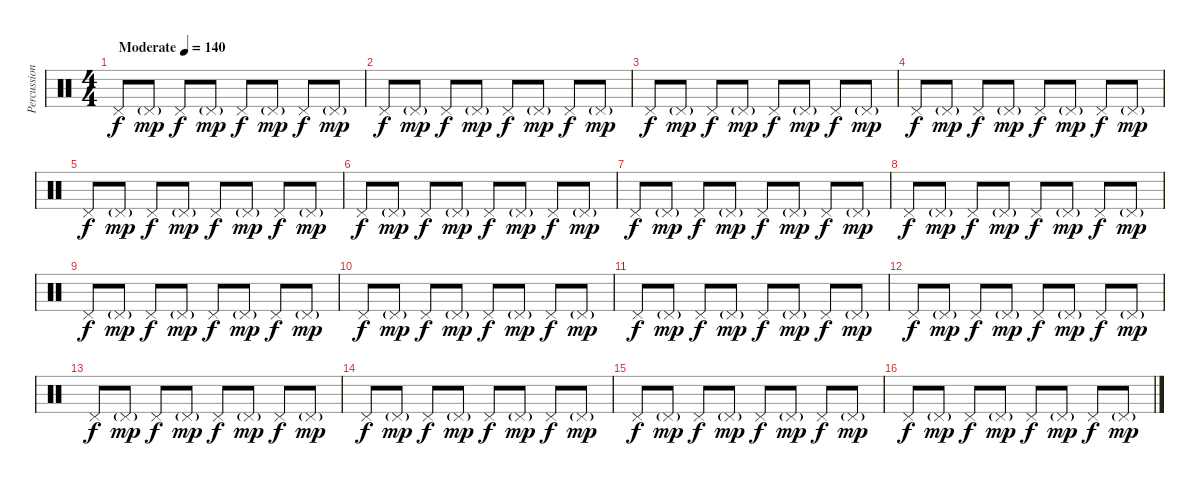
\track ("Percussioni" "Percussion") {instrument percussion}
\staff {score}
\articulation defaults
\ts (4 4)
\tempo (140 "Moderate")
\clef neutral
\ks c "Pedal Hi-Hat (hit)".8{dy f} "Pedal Hi-Hat (hit)"{g}.8{dy mp} "Pedal Hi-Hat (hit)".8{dy f} "Pedal Hi-Hat (hit)"{g}.8{dy mp} "Pedal Hi-Hat (hit)".8{dy f} "Pedal Hi-Hat (hit)"{g}.8{dy mp} "Pedal Hi-Hat (hit)".8{dy f} "Pedal Hi-Hat (hit)"{g}.8{dy mp}
|
"Pedal Hi-Hat (hit)".8{dy f} "Pedal Hi-Hat (hit)"{g}.8{dy mp} "Pedal Hi-Hat (hit)".8{dy f} "Pedal Hi-Hat (hit)"{g}.8{dy mp} "Pedal Hi-Hat (hit)".8{dy f} "Pedal Hi-Hat (hit)"{g}.8{dy mp} "Pedal Hi-Hat (hit)".8{dy f} "Pedal Hi-Hat (hit)"{g}.8{dy mp} |
"Pedal Hi-Hat (hit)".8{dy f} "Pedal Hi-Hat (hit)"{g}.8{dy mp} "Pedal Hi-Hat (hit)".8{dy f} "Pedal Hi-Hat (hit)"{g}.8{dy mp} "Pedal Hi-Hat (hit)".8{dy f} "Pedal Hi-Hat (hit)"{g}.8{dy mp} "Pedal Hi-Hat (hit)".8{dy f} "Pedal Hi-Hat (hit)"{g}.8{dy mp} |
"Pedal Hi-Hat (hit)".8{dy f} "Pedal Hi-Hat (hit)"{g}.8{dy mp} "Pedal Hi-Hat (hit)".8{dy f} "Pedal Hi-Hat (hit)"{g}.8{dy mp} "Pedal Hi-Hat (hit)".8{dy f} "Pedal Hi-Hat (hit)"{g}.8{dy mp} "Pedal Hi-Hat (hit)".8{dy f} "Pedal Hi-Hat (hit)"{g}.8{dy mp} |
"Pedal Hi-Hat (hit)".8{dy f} "Pedal Hi-Hat (hit)"{g}.8{dy mp} "Pedal Hi-Hat (hit)".8{dy f} "Pedal Hi-Hat (hit)"{g}.8{dy mp} "Pedal Hi-Hat (hit)".8{dy f} "Pedal Hi-Hat (hit)"{g}.8{dy mp} "Pedal Hi-Hat (hit)".8{dy f} "Pedal Hi-Hat (hit)"{g}.8{dy mp} |
"Pedal Hi-Hat (hit)".8{dy f} "Pedal Hi-Hat (hit)"{g}.8{dy mp} "Pedal Hi-Hat (hit)".8{dy f} "Pedal Hi-Hat (hit)"{g}.8{dy mp} "Pedal Hi-Hat (hit)".8{dy f} "Pedal Hi-Hat (hit)"{g}.8{dy mp} "Pedal Hi-Hat (hit)".8{dy f} "Pedal Hi-Hat (hit)"{g}.8{dy mp} |
"Pedal Hi-Hat (hit)".8{dy f} "Pedal Hi-Hat (hit)"{g}.8{dy mp} "Pedal Hi-Hat (hit)".8{dy f} "Pedal Hi-Hat (hit)"{g}.8{dy mp} "Pedal Hi-Hat (hit)".8{dy f} "Pedal Hi-Hat (hit)"{g}.8{dy mp} "Pedal Hi-Hat (hit)".8{dy f} "Pedal Hi-Hat (hit)"{g}.8{dy mp} |
"Pedal Hi-Hat (hit)".8{dy f} "Pedal Hi-Hat (hit)"{g}.8{dy mp} "Pedal Hi-Hat (hit)".8{dy f} "Pedal Hi-Hat (hit)"{g}.8{dy mp} "Pedal Hi-Hat (hit)".8{dy f} "Pedal Hi-Hat (hit)"{g}.8{dy mp} "Pedal Hi-Hat (hit)".8{dy f} "Pedal Hi-Hat (hit)"{g}.8{dy mp} |
"Pedal Hi-Hat (hit)".8{dy f} "Pedal Hi-Hat (hit)"{g}.8{dy mp} "Pedal Hi-Hat (hit)".8{dy f} "Pedal Hi-Hat (hit)"{g}.8{dy mp} "Pedal Hi-Hat (hit)".8{dy f} "Pedal Hi-Hat (hit)"{g}.8{dy mp} "Pedal Hi-Hat (hit)".8{dy f} "Pedal Hi-Hat (hit)"{g}.8{dy mp} |
"Pedal Hi-Hat (hit)".8{dy f} "Pedal Hi-Hat (hit)"{g}.8{dy mp} "Pedal Hi-Hat (hit)".8{dy f} "Pedal Hi-Hat (hit)"{g}.8{dy mp} "Pedal Hi-Hat (hit)".8{dy f} "Pedal Hi-Hat (hit)"{g}.8{dy mp} "Pedal Hi-Hat (hit)".8{dy f} "Pedal Hi-Hat (hit)"{g}.8{dy mp} |
"Pedal Hi-Hat (hit)".8{dy f} "Pedal Hi-Hat (hit)"{g}.8{dy mp} "Pedal Hi-Hat (hit)".8{dy f} "Pedal Hi-Hat (hit)"{g}.8{dy mp} "Pedal Hi-Hat (hit)".8{dy f} "Pedal Hi-Hat (hit)"{g}.8{dy mp} "Pedal Hi-Hat (hit)".8{dy f} "Pedal Hi-Hat (hit)"{g}.8{dy mp} |
"Pedal Hi-Hat (hit)".8{dy f} "Pedal Hi-Hat (hit)"{g}.8{dy mp} "Pedal Hi-Hat (hit)".8{dy f} "Pedal Hi-Hat (hit)"{g}.8{dy mp} "Pedal Hi-Hat (hit)".8{dy f} "Pedal Hi-Hat (hit)"{g}.8{dy mp} "Pedal Hi-Hat (hit)".8{dy f} "Pedal Hi-Hat (hit)"{g}.8{dy mp} |
"Pedal Hi-Hat (hit)".8{dy f} "Pedal Hi-Hat (hit)"{g}.8{dy mp} "Pedal Hi-Hat (hit)".8{dy f} "Pedal Hi-Hat (hit)"{g}.8{dy mp} "Pedal Hi-Hat (hit)".8{dy f} "Pedal Hi-Hat (hit)"{g}.8{dy mp} "Pedal Hi-Hat (hit)".8{dy f} "Pedal Hi-Hat (hit)"{g}.8{dy mp} |
"Pedal Hi-Hat (hit)".8{dy f} "Pedal Hi-Hat (hit)"{g}.8{dy mp} "Pedal Hi-Hat (hit)".8{dy f} "Pedal Hi-Hat (hit)"{g}.8{dy mp} "Pedal Hi-Hat (hit)".8{dy f} "Pedal Hi-Hat (hit)"{g}.8{dy mp} "Pedal Hi-Hat (hit)".8{dy f} "Pedal Hi-Hat (hit)"{g}.8{dy mp} |
"Pedal Hi-Hat (hit)".8{dy f} "Pedal Hi-Hat (hit)"{g}.8{dy mp} "Pedal Hi-Hat (hit)".8{dy f} "Pedal Hi-Hat (hit)"{g}.8{dy mp} "Pedal Hi-Hat (hit)".8{dy f} "Pedal Hi-Hat (hit)"{g}.8{dy mp} "Pedal Hi-Hat (hit)".8{dy f} "Pedal Hi-Hat (hit)"{g}.8{dy mp} |
"Pedal Hi-Hat (hit)".8{dy f} "Pedal Hi-Hat (hit)"{g}.8{dy mp} "Pedal Hi-Hat (hit)".8{dy f} "Pedal Hi-Hat (hit)"{g}.8{dy mp} "Pedal Hi-Hat (hit)".8{dy f} "Pedal Hi-Hat (hit)"{g}.8{dy mp} "Pedal Hi-Hat (hit)".8{dy f} "Pedal Hi-Hat (hit)"{g}.8{dy mp}
